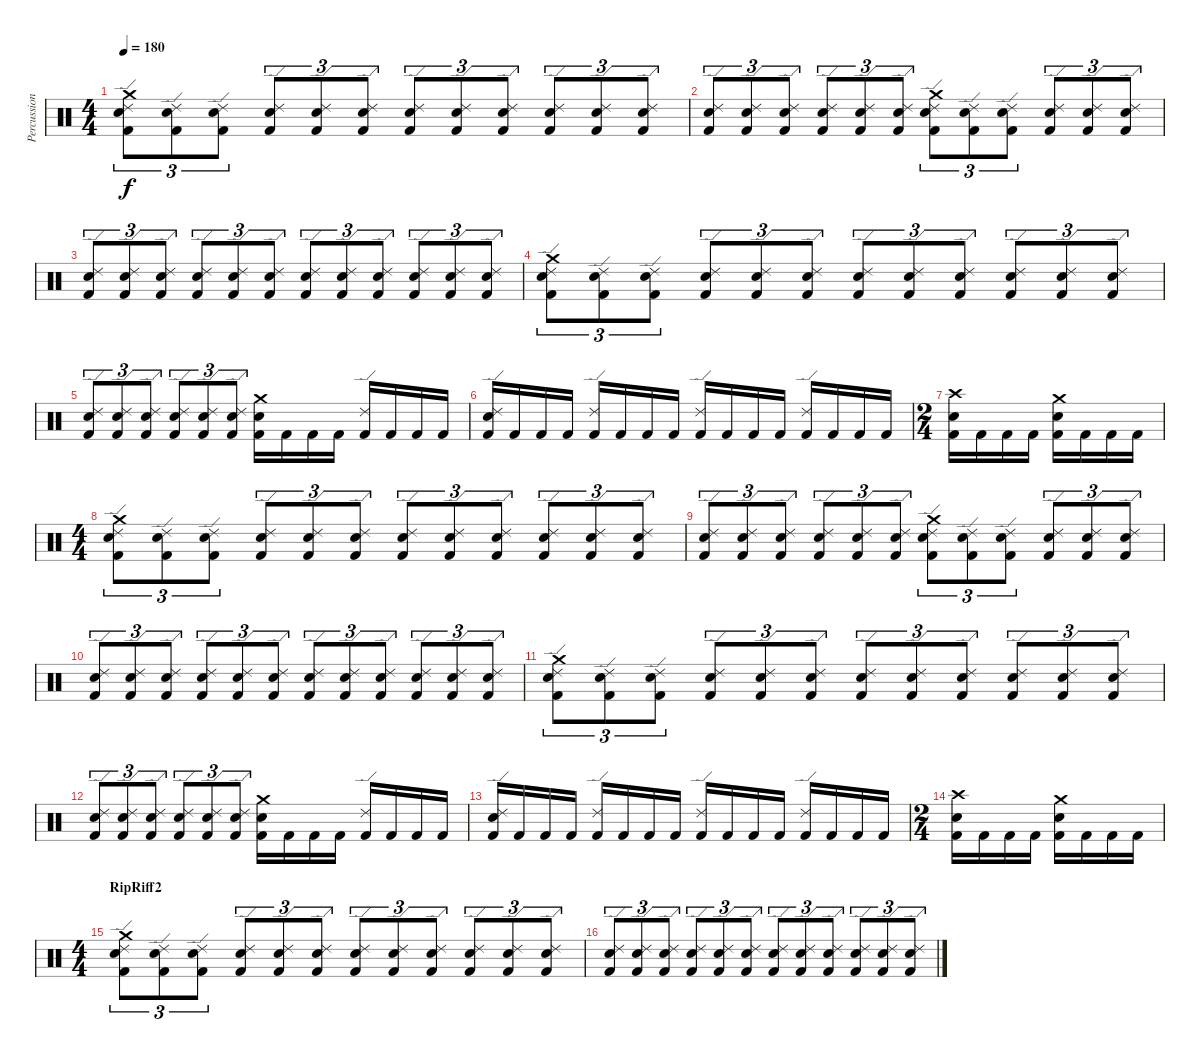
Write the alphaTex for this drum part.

\track ("Percussioni" "Percussion") {instrument percussion}
\staff {score}
\articulation defaults
\ts (4 4)
\tempo 180
\clef neutral
\ks c
("Crash medium (hit)" "Ride (edge) 2" "Snare (hit) 2" "Kick (hit) 2").8{tu (3 2) dy f} ("Ride (edge) 2" "Snare (hit) 2" "Kick (hit) 2").8{tu (3 2)} ("Ride (edge) 2" "Snare (hit) 2" "Kick (hit) 2").8{tu (3 2)} ("Ride (edge) 2" "Snare (hit) 2" "Kick (hit) 2").8{tu (3 2)} ("Ride (edge) 2" "Snare (hit) 2" "Kick (hit) 2").8{tu (3 2)} ("Ride (edge) 2" "Snare (hit) 2" "Kick (hit) 2").8{tu (3 2)} ("Ride (edge) 2" "Snare (hit) 2" "Kick (hit) 2").8{tu (3 2)} ("Ride (edge) 2" "Snare (hit) 2" "Kick (hit) 2").8{tu (3 2)} ("Ride (edge) 2" "Snare (hit) 2" "Kick (hit) 2").8{tu (3 2)} ("Ride (edge) 2" "Snare (hit) 2" "Kick (hit) 2").8{tu (3 2)} ("Ride (edge) 2" "Snare (hit) 2" "Kick (hit) 2").8{tu (3 2)} ("Ride (edge) 2" "Snare (hit) 2" "Kick (hit) 2").8{tu (3 2)} |
("Ride (edge) 2" "Snare (hit) 2" "Kick (hit) 2").8{tu (3 2)} ("Ride (edge) 2" "Snare (hit) 2" "Kick (hit) 2").8{tu (3 2)} ("Ride (edge) 2" "Snare (hit) 2" "Kick (hit) 2").8{tu (3 2)} ("Ride (edge) 2" "Snare (hit) 2" "Kick (hit) 2").8{tu (3 2)} ("Ride (edge) 2" "Snare (hit) 2" "Kick (hit) 2").8{tu (3 2)} ("Ride (edge) 2" "Snare (hit) 2" "Kick (hit) 2").8{tu (3 2)} ("Crash medium (hit)" "Ride (edge) 2" "Snare (hit) 2" "Kick (hit) 2").8{tu (3 2)} ("Ride (edge) 2" "Snare (hit) 2" "Kick (hit) 2").8{tu (3 2)} ("Ride (edge) 2" "Snare (hit) 2" "Kick (hit) 2").8{tu (3 2)} ("Ride (edge) 2" "Snare (hit) 2" "Kick (hit) 2").8{tu (3 2)} ("Ride (edge) 2" "Snare (hit) 2" "Kick (hit) 2").8{tu (3 2)} ("Ride (edge) 2" "Snare (hit) 2" "Kick (hit) 2").8{tu (3 2)} |
("Ride (edge) 2" "Snare (hit) 2" "Kick (hit) 2").8{tu (3 2)} ("Ride (edge) 2" "Snare (hit) 2" "Kick (hit) 2").8{tu (3 2)} ("Ride (edge) 2" "Snare (hit) 2" "Kick (hit) 2").8{tu (3 2)} ("Ride (edge) 2" "Snare (hit) 2" "Kick (hit) 2").8{tu (3 2)} ("Ride (edge) 2" "Snare (hit) 2" "Kick (hit) 2").8{tu (3 2)} ("Ride (edge) 2" "Snare (hit) 2" "Kick (hit) 2").8{tu (3 2)} ("Ride (edge) 2" "Snare (hit) 2" "Kick (hit) 2").8{tu (3 2)} ("Ride (edge) 2" "Snare (hit) 2" "Kick (hit) 2").8{tu (3 2)} ("Ride (edge) 2" "Snare (hit) 2" "Kick (hit) 2").8{tu (3 2)} ("Ride (edge) 2" "Snare (hit) 2" "Kick (hit) 2").8{tu (3 2)} ("Ride (edge) 2" "Snare (hit) 2" "Kick (hit) 2").8{tu (3 2)} ("Ride (edge) 2" "Snare (hit) 2" "Kick (hit) 2").8{tu (3 2)} |
("Crash medium (hit)" "Ride (edge) 2" "Snare (hit) 2" "Kick (hit) 2").8{tu (3 2)} ("Ride (edge) 2" "Snare (hit) 2" "Kick (hit) 2").8{tu (3 2)} ("Ride (edge) 2" "Snare (hit) 2" "Kick (hit) 2").8{tu (3 2)} ("Ride (edge) 2" "Snare (hit) 2" "Kick (hit) 2").8{tu (3 2)} ("Ride (edge) 2" "Snare (hit) 2" "Kick (hit) 2").8{tu (3 2)} ("Ride (edge) 2" "Snare (hit) 2" "Kick (hit) 2").8{tu (3 2)} ("Ride (edge) 2" "Snare (hit) 2" "Kick (hit) 2").8{tu (3 2)} ("Ride (edge) 2" "Snare (hit) 2" "Kick (hit) 2").8{tu (3 2)} ("Ride (edge) 2" "Snare (hit) 2" "Kick (hit) 2").8{tu (3 2)} ("Ride (edge) 2" "Snare (hit) 2" "Kick (hit) 2").8{tu (3 2)} ("Ride (edge) 2" "Snare (hit) 2" "Kick (hit) 2").8{tu (3 2)} ("Ride (edge) 2" "Snare (hit) 2" "Kick (hit) 2").8{tu (3 2)} |
("Ride (edge) 2" "Snare (hit) 2" "Kick (hit) 2").8{tu (3 2)} ("Ride (edge) 2" "Snare (hit) 2" "Kick (hit) 2").8{tu (3 2)} ("Ride (edge) 2" "Snare (hit) 2" "Kick (hit) 2").8{tu (3 2)} ("Ride (edge) 2" "Snare (hit) 2" "Kick (hit) 2").8{tu (3 2)} ("Ride (edge) 2" "Snare (hit) 2" "Kick (hit) 2").8{tu (3 2)} ("Ride (edge) 2" "Snare (hit) 2" "Kick (hit) 2").8{tu (3 2)} ("Crash medium (hit)" "Snare (hit) 2" "Kick (hit) 2").16 "Kick (hit) 2".16 "Kick (hit) 2".16 "Kick (hit) 2".16 ("Ride (edge) 2" "Kick (hit) 2").16 "Kick (hit) 2".16 "Kick (hit) 2".16 "Kick (hit) 2".16 |
("Ride (edge) 2" "Snare (hit) 2" "Kick (hit) 2").16 "Kick (hit) 2".16 "Kick (hit) 2".16 "Kick (hit) 2".16 ("Ride (edge) 2" "Kick (hit) 2").16 "Kick (hit) 2".16 "Kick (hit) 2".16 "Kick (hit) 2".16 ("Ride (edge) 2" "Kick (hit) 2").16 "Kick (hit) 2".16 "Kick (hit) 2".16 "Kick (hit) 2".16 ("Ride (edge) 2" "Kick (hit) 2").16 "Kick (hit) 2".16 "Kick (hit) 2".16 "Kick (hit) 2".16 |
\ts (2 4)
("Crash high (hit)" "Snare (hit) 2" "Kick (hit) 2").16 "Kick (hit) 2".16 "Kick (hit) 2".16 "Kick (hit) 2".16 ("Crash medium (hit)" "Snare (hit) 2" "Kick (hit) 2").16 "Kick (hit) 2".16 "Kick (hit) 2".16 "Kick (hit) 2".16 |
\ts (4 4)
("Crash medium (hit)" "Ride (edge) 2" "Snare (hit) 2" "Kick (hit) 2").8{tu (3 2)} ("Ride (edge) 2" "Snare (hit) 2" "Kick (hit) 2").8{tu (3 2)} ("Ride (edge) 2" "Snare (hit) 2" "Kick (hit) 2").8{tu (3 2)} ("Ride (edge) 2" "Snare (hit) 2" "Kick (hit) 2").8{tu (3 2)} ("Ride (edge) 2" "Snare (hit) 2" "Kick (hit) 2").8{tu (3 2)} ("Ride (edge) 2" "Snare (hit) 2" "Kick (hit) 2").8{tu (3 2)} ("Ride (edge) 2" "Snare (hit) 2" "Kick (hit) 2").8{tu (3 2)} ("Ride (edge) 2" "Snare (hit) 2" "Kick (hit) 2").8{tu (3 2)} ("Ride (edge) 2" "Snare (hit) 2" "Kick (hit) 2").8{tu (3 2)} ("Ride (edge) 2" "Snare (hit) 2" "Kick (hit) 2").8{tu (3 2)} ("Ride (edge) 2" "Snare (hit) 2" "Kick (hit) 2").8{tu (3 2)} ("Ride (edge) 2" "Snare (hit) 2" "Kick (hit) 2").8{tu (3 2)} |
("Ride (edge) 2" "Snare (hit) 2" "Kick (hit) 2").8{tu (3 2)} ("Ride (edge) 2" "Snare (hit) 2" "Kick (hit) 2").8{tu (3 2)} ("Ride (edge) 2" "Snare (hit) 2" "Kick (hit) 2").8{tu (3 2)} ("Ride (edge) 2" "Snare (hit) 2" "Kick (hit) 2").8{tu (3 2)} ("Ride (edge) 2" "Snare (hit) 2" "Kick (hit) 2").8{tu (3 2)} ("Ride (edge) 2" "Snare (hit) 2" "Kick (hit) 2").8{tu (3 2)} ("Crash medium (hit)" "Ride (edge) 2" "Snare (hit) 2" "Kick (hit) 2").8{tu (3 2)} ("Ride (edge) 2" "Snare (hit) 2" "Kick (hit) 2").8{tu (3 2)} ("Ride (edge) 2" "Snare (hit) 2" "Kick (hit) 2").8{tu (3 2)} ("Ride (edge) 2" "Snare (hit) 2" "Kick (hit) 2").8{tu (3 2)} ("Ride (edge) 2" "Snare (hit) 2" "Kick (hit) 2").8{tu (3 2)} ("Ride (edge) 2" "Snare (hit) 2" "Kick (hit) 2").8{tu (3 2)} |
("Ride (edge) 2" "Snare (hit) 2" "Kick (hit) 2").8{tu (3 2)} ("Ride (edge) 2" "Snare (hit) 2" "Kick (hit) 2").8{tu (3 2)} ("Ride (edge) 2" "Snare (hit) 2" "Kick (hit) 2").8{tu (3 2)} ("Ride (edge) 2" "Snare (hit) 2" "Kick (hit) 2").8{tu (3 2)} ("Ride (edge) 2" "Snare (hit) 2" "Kick (hit) 2").8{tu (3 2)} ("Ride (edge) 2" "Snare (hit) 2" "Kick (hit) 2").8{tu (3 2)} ("Ride (edge) 2" "Snare (hit) 2" "Kick (hit) 2").8{tu (3 2)} ("Ride (edge) 2" "Snare (hit) 2" "Kick (hit) 2").8{tu (3 2)} ("Ride (edge) 2" "Snare (hit) 2" "Kick (hit) 2").8{tu (3 2)} ("Ride (edge) 2" "Snare (hit) 2" "Kick (hit) 2").8{tu (3 2)} ("Ride (edge) 2" "Snare (hit) 2" "Kick (hit) 2").8{tu (3 2)} ("Ride (edge) 2" "Snare (hit) 2" "Kick (hit) 2").8{tu (3 2)} |
("Crash medium (hit)" "Ride (edge) 2" "Snare (hit) 2" "Kick (hit) 2").8{tu (3 2)} ("Ride (edge) 2" "Snare (hit) 2" "Kick (hit) 2").8{tu (3 2)} ("Ride (edge) 2" "Snare (hit) 2" "Kick (hit) 2").8{tu (3 2)} ("Ride (edge) 2" "Snare (hit) 2" "Kick (hit) 2").8{tu (3 2)} ("Ride (edge) 2" "Snare (hit) 2" "Kick (hit) 2").8{tu (3 2)} ("Ride (edge) 2" "Snare (hit) 2" "Kick (hit) 2").8{tu (3 2)} ("Ride (edge) 2" "Snare (hit) 2" "Kick (hit) 2").8{tu (3 2)} ("Ride (edge) 2" "Snare (hit) 2" "Kick (hit) 2").8{tu (3 2)} ("Ride (edge) 2" "Snare (hit) 2" "Kick (hit) 2").8{tu (3 2)} ("Ride (edge) 2" "Snare (hit) 2" "Kick (hit) 2").8{tu (3 2)} ("Ride (edge) 2" "Snare (hit) 2" "Kick (hit) 2").8{tu (3 2)} ("Ride (edge) 2" "Snare (hit) 2" "Kick (hit) 2").8{tu (3 2)} |
("Ride (edge) 2" "Snare (hit) 2" "Kick (hit) 2").8{tu (3 2)} ("Ride (edge) 2" "Snare (hit) 2" "Kick (hit) 2").8{tu (3 2)} ("Ride (edge) 2" "Snare (hit) 2" "Kick (hit) 2").8{tu (3 2)} ("Ride (edge) 2" "Snare (hit) 2" "Kick (hit) 2").8{tu (3 2)} ("Ride (edge) 2" "Snare (hit) 2" "Kick (hit) 2").8{tu (3 2)} ("Ride (edge) 2" "Snare (hit) 2" "Kick (hit) 2").8{tu (3 2)} ("Crash medium (hit)" "Snare (hit) 2" "Kick (hit) 2").16 "Kick (hit) 2".16 "Kick (hit) 2".16 "Kick (hit) 2".16 ("Ride (edge) 2" "Kick (hit) 2").16 "Kick (hit) 2".16 "Kick (hit) 2".16 "Kick (hit) 2".16 |
("Ride (edge) 2" "Snare (hit) 2" "Kick (hit) 2").16 "Kick (hit) 2".16 "Kick (hit) 2".16 "Kick (hit) 2".16 ("Ride (edge) 2" "Kick (hit) 2").16 "Kick (hit) 2".16 "Kick (hit) 2".16 "Kick (hit) 2".16 ("Ride (edge) 2" "Kick (hit) 2").16 "Kick (hit) 2".16 "Kick (hit) 2".16 "Kick (hit) 2".16 ("Ride (edge) 2" "Kick (hit) 2").16 "Kick (hit) 2".16 "Kick (hit) 2".16 "Kick (hit) 2".16 |
\ts (2 4)
("Crash high (hit)" "Snare (hit) 2" "Kick (hit) 2").16 "Kick (hit) 2".16 "Kick (hit) 2".16 "Kick (hit) 2".16 ("Crash medium (hit)" "Snare (hit) 2" "Kick (hit) 2").16 "Kick (hit) 2".16 "Kick (hit) 2".16 "Kick (hit) 2".16 |
\ts (4 4)
\section ("" "RipRiff2")
("Crash medium (hit)" "Ride (edge) 2" "Snare (hit) 2" "Kick (hit) 2").8{tu (3 2)} ("Ride (edge) 2" "Snare (hit) 2" "Kick (hit) 2").8{tu (3 2)} ("Ride (edge) 2" "Snare (hit) 2" "Kick (hit) 2").8{tu (3 2)} ("Ride (edge) 2" "Snare (hit) 2" "Kick (hit) 2").8{tu (3 2)} ("Ride (edge) 2" "Snare (hit) 2" "Kick (hit) 2").8{tu (3 2)} ("Ride (edge) 2" "Snare (hit) 2" "Kick (hit) 2").8{tu (3 2)} ("Ride (edge) 2" "Snare (hit) 2" "Kick (hit) 2").8{tu (3 2)} ("Ride (edge) 2" "Snare (hit) 2" "Kick (hit) 2").8{tu (3 2)} ("Ride (edge) 2" "Snare (hit) 2" "Kick (hit) 2").8{tu (3 2)} ("Ride (edge) 2" "Snare (hit) 2" "Kick (hit) 2").8{tu (3 2)} ("Ride (edge) 2" "Snare (hit) 2" "Kick (hit) 2").8{tu (3 2)} ("Ride (edge) 2" "Snare (hit) 2" "Kick (hit) 2").8{tu (3 2)} |
("Ride (edge) 2" "Snare (hit) 2" "Kick (hit) 2").8{tu (3 2)} ("Ride (edge) 2" "Snare (hit) 2" "Kick (hit) 2").8{tu (3 2)} ("Ride (edge) 2" "Snare (hit) 2" "Kick (hit) 2").8{tu (3 2)} ("Ride (edge) 2" "Snare (hit) 2" "Kick (hit) 2").8{tu (3 2)} ("Ride (edge) 2" "Snare (hit) 2" "Kick (hit) 2").8{tu (3 2)} ("Ride (edge) 2" "Snare (hit) 2" "Kick (hit) 2").8{tu (3 2)} ("Ride (edge) 2" "Snare (hit) 2" "Kick (hit) 2").8{tu (3 2)} ("Ride (edge) 2" "Snare (hit) 2" "Kick (hit) 2").8{tu (3 2)} ("Ride (edge) 2" "Snare (hit) 2" "Kick (hit) 2").8{tu (3 2)} ("Ride (edge) 2" "Snare (hit) 2" "Kick (hit) 2").8{tu (3 2)} ("Ride (edge) 2" "Snare (hit) 2" "Kick (hit) 2").8{tu (3 2)} ("Ride (edge) 2" "Snare (hit) 2" "Kick (hit) 2").8{tu (3 2)}
